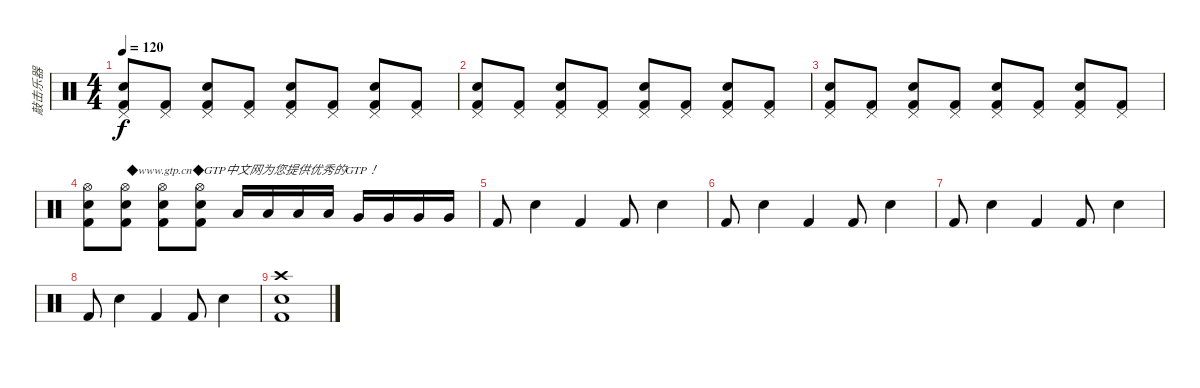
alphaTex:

\track ("敲击乐器" "敲击乐器") {instrument percussion}
\staff {score}
\articulation defaults
\ts (4 4)
\tempo 120
\clef neutral
\ks c
("Pedal Hi-Hat (hit)" "Snare (hit) 2" "Kick (hit) 2").8{dy f} ("Pedal Hi-Hat (hit)" "Kick (hit) 2").8 ("Pedal Hi-Hat (hit)" "Snare (hit) 2" "Kick (hit) 2").8 ("Pedal Hi-Hat (hit)" "Kick (hit) 2").8 ("Pedal Hi-Hat (hit)" "Snare (hit) 2" "Kick (hit) 2").8 ("Pedal Hi-Hat (hit)" "Kick (hit) 2").8 ("Pedal Hi-Hat (hit)" "Snare (hit) 2" "Kick (hit) 2").8 ("Pedal Hi-Hat (hit)" "Kick (hit) 2").8 |
("Pedal Hi-Hat (hit)" "Snare (hit) 2" "Kick (hit) 2").8 ("Pedal Hi-Hat (hit)" "Kick (hit) 2").8 ("Pedal Hi-Hat (hit)" "Snare (hit) 2" "Kick (hit) 2").8 ("Pedal Hi-Hat (hit)" "Kick (hit) 2").8 ("Pedal Hi-Hat (hit)" "Snare (hit) 2" "Kick (hit) 2").8 ("Pedal Hi-Hat (hit)" "Kick (hit) 2").8 ("Pedal Hi-Hat (hit)" "Snare (hit) 2" "Kick (hit) 2").8 ("Pedal Hi-Hat (hit)" "Kick (hit) 2").8 |
("Pedal Hi-Hat (hit)" "Snare (hit) 2" "Kick (hit) 2").8 ("Pedal Hi-Hat (hit)" "Kick (hit) 2").8 ("Pedal Hi-Hat (hit)" "Snare (hit) 2" "Kick (hit) 2").8 ("Pedal Hi-Hat (hit)" "Kick (hit) 2").8 ("Pedal Hi-Hat (hit)" "Snare (hit) 2" "Kick (hit) 2").8 ("Pedal Hi-Hat (hit)" "Kick (hit) 2").8 ("Pedal Hi-Hat (hit)" "Snare (hit) 2" "Kick (hit) 2").8 ("Pedal Hi-Hat (hit)" "Kick (hit) 2").8 |
("Hi-Hat (open)" "Snare (hit) 2" "Kick (hit) 2").8 ("Hi-Hat (open)" "Snare (hit) 2" "Kick (hit) 2").8{txt "◆www.gtp.cn◆GTP中文网为您提供优秀的GTP！"} ("Hi-Hat (open)" "Snare (hit) 2" "Kick (hit) 2").8 ("Hi-Hat (open)" "Snare (hit) 2" "Kick (hit) 2").8 "Low Tom (hit)".16 "Low Tom (hit)".16 "Low Tom (hit)".16 "Low Tom (hit)".16 "Very Low Tom (hit)".16 "Very Low Tom (hit)".16 "Very Low Tom (hit)".16 "Very Low Tom (hit)".16 |
"Kick (hit) 2".8 "Snare (hit) 2".4 "Kick (hit) 2".4 "Kick (hit) 2".8 "Snare (hit) 2".4 |
"Kick (hit) 2".8 "Snare (hit) 2".4 "Kick (hit) 2".4 "Kick (hit) 2".8 "Snare (hit) 2".4 |
"Kick (hit) 2".8 "Snare (hit) 2".4 "Kick (hit) 2".4 "Kick (hit) 2".8 "Snare (hit) 2".4 |
"Kick (hit) 2".8 "Snare (hit) 2".4 "Kick (hit) 2".4 "Kick (hit) 2".8 "Snare (hit) 2".4 |
("Kick (hit) 2" "Snare (hit) 2" "Crash high (hit)").1
